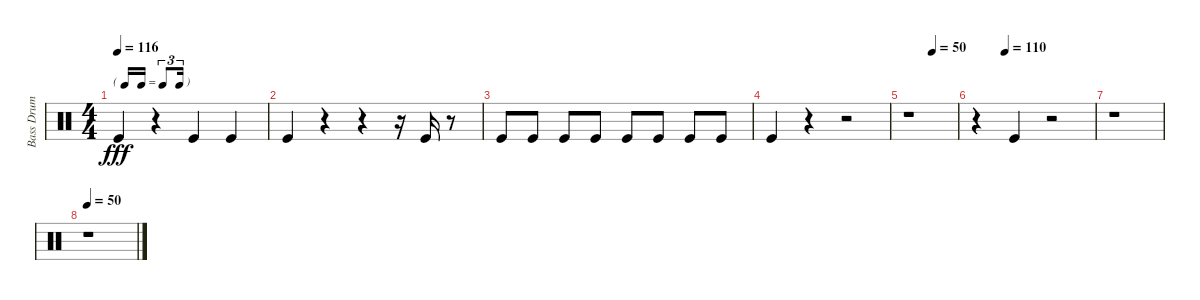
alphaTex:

\track ("Bass Drum" "Bass Drum") {instrument percussion}
\staff {score}
\articulation defaults
\ts (4 4)
\tf triplet16th
\tempo 116
\clef neutral
\ks c "Kick (hit)".4{dy fff}
r.4 "Kick (hit)".4 "Kick (hit)".4 |
"Kick (hit)".4 r.4 r.4 r.16 "Kick (hit)".16 r.8 |
"Kick (hit)".8 "Kick (hit)".8 "Kick (hit)".8 "Kick (hit)".8 "Kick (hit)".8 "Kick (hit)".8 "Kick (hit)".8 "Kick (hit)".8 |
"Kick (hit)".4 r.4 r.2 |
\tempo (50 0.5)
r.1 |
\tempo (110 0.25)
r.4 "Kick (hit)".4 r.2 |
r.1 |
\tempo 50
r.1
